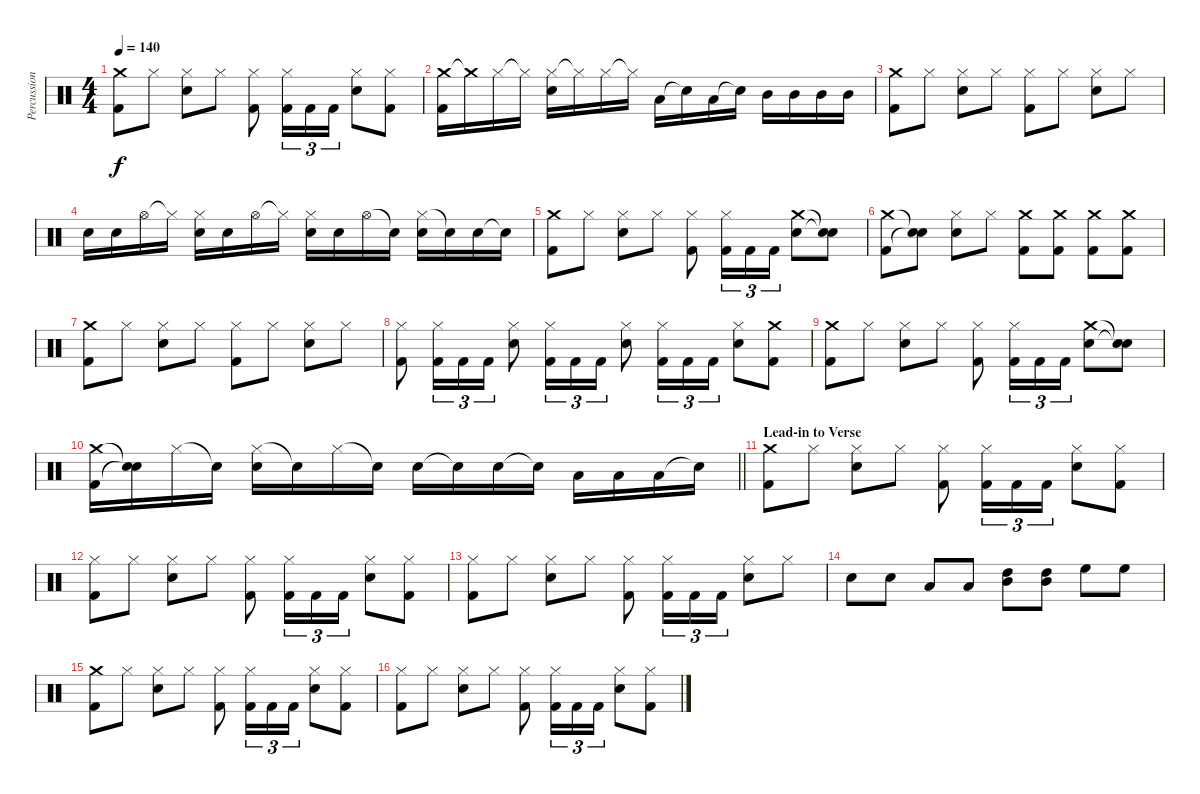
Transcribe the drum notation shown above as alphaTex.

\track ("Percussion" "Percussion") {instrument percussion}
\staff {score}
\articulation defaults
\ts (4 4)
\tempo 140
\clef neutral
\ks c
("Crash medium (hit)" "Kick (hit) 2").8{dy f} "Hi-Hat (closed)".8 ("Hi-Hat (closed)" "Snare (hit) 2").8 "Hi-Hat (closed)".8 ("Hi-Hat (closed)" "Kick (hit) 2").8 ("Hi-Hat (closed)" "Kick (hit) 2").16{tu (3 2)} "Kick (hit) 2".16{tu (3 2)} "Kick (hit) 2".16{tu (3 2)} ("Hi-Hat (closed)" "Snare (hit) 2").8 ("Hi-Hat (closed)" "Kick (hit) 2").8 |
("Crash medium (hit)" "Kick (hit) 2").16 "Crash medium (hit)"{t}.16 "Hi-Hat (closed)".16 "Hi-Hat (closed)"{t}.16 ("Hi-Hat (closed)" "Snare (hit) 2").16 "Hi-Hat (closed)"{t}.16 "Hi-Hat (closed)".16 "Hi-Hat (closed)"{t}.16 "Low Tom (hit)".16 "Snare (hit)"{t}.16 "Low Tom (hit)".16 "Snare (hit)"{t}.16 "Mid Tom (hit)".16 "Mid Tom (hit)".16 "Mid Tom (hit)".16 "Mid Tom (hit)".16 |
("Crash medium (hit)" "Kick (hit) 2").8 "Hi-Hat (closed)".8 ("Hi-Hat (closed)" "Snare (hit) 2").8 "Hi-Hat (closed)".8 ("Hi-Hat (closed)" "Kick (hit) 2").8 "Hi-Hat (closed)".8 ("Hi-Hat (closed)" "Snare (hit) 2").8 "Hi-Hat (closed)".8 |
"Snare (hit) 2".16 "Snare (hit) 2".16 "Hi-Hat (open)".16 "Hi-Hat (closed)"{t}.16 ("Hi-Hat (closed)" "Snare (hit) 2").16 "Snare (hit) 2".16 "Hi-Hat (open)".16 "Hi-Hat (closed)"{t}.16 ("Hi-Hat (closed)" "Snare (hit) 2").16 "Snare (hit) 2".16 "Hi-Hat (open)".16 "Snare (hit)"{t}.16 ("Hi-Hat (closed)" "Snare (hit) 2").16 "Snare (hit) 2"{t}.16 "Snare (hit) 2".16 "Snare (hit)"{t}.16 |
("Crash medium (hit)" "Kick (hit) 2").8 "Hi-Hat (closed)".8 ("Hi-Hat (closed)" "Snare (hit) 2").8 "Hi-Hat (closed)".8 ("Hi-Hat (closed)" "Kick (hit) 2").8 ("Hi-Hat (closed)" "Kick (hit) 2").16{tu (3 2)} "Kick (hit) 2".16{tu (3 2)} "Kick (hit) 2".16{tu (3 2)} ("Crash medium (hit)" "Snare (hit) 2").8 ("Snare (hit)"{t} "Snare (hit)"{t}).8 |
("Crash medium (hit)" "Kick (hit) 2").8 ("Snare (hit)"{t} "Snare (hit)"{t}).8 ("Hi-Hat (closed)" "Snare (hit) 2").8 "Hi-Hat (closed)".8 ("Crash medium (hit)" "Kick (hit) 2").8 ("Crash medium (hit)" "Kick (hit) 2").8 ("Crash medium (hit)" "Kick (hit) 2").8 ("Crash medium (hit)" "Kick (hit) 2").8 |
("Crash medium (hit)" "Kick (hit) 2").8 "Hi-Hat (closed)".8 ("Hi-Hat (closed)" "Snare (hit) 2").8 "Hi-Hat (closed)".8 ("Hi-Hat (closed)" "Kick (hit) 2").8 "Hi-Hat (closed)".8 ("Hi-Hat (closed)" "Snare (hit) 2").8 "Hi-Hat (closed)".8 |
("Hi-Hat (closed)" "Kick (hit) 2").8 ("Hi-Hat (closed)" "Kick (hit) 2").16{tu (3 2)} "Kick (hit) 2".16{tu (3 2)} "Kick (hit) 2".16{tu (3 2)} ("Hi-Hat (closed)" "Snare (hit) 2").8 ("Hi-Hat (closed)" "Kick (hit) 2").16{tu (3 2)} "Kick (hit) 2".16{tu (3 2)} "Kick (hit) 2".16{tu (3 2)} ("Hi-Hat (closed)" "Snare (hit) 2").8 ("Hi-Hat (closed)" "Kick (hit) 2").16{tu (3 2)} "Kick (hit) 2".16{tu (3 2)} "Kick (hit) 2".16{tu (3 2)} ("Hi-Hat (closed)" "Snare (hit) 2").8 ("Crash medium (hit)" "Kick (hit) 2").8 |
("Crash medium (hit)" "Kick (hit) 2").8 "Hi-Hat (closed)".8 ("Hi-Hat (closed)" "Snare (hit) 2").8 "Hi-Hat (closed)".8 ("Hi-Hat (closed)" "Kick (hit) 2").8 ("Hi-Hat (closed)" "Kick (hit) 2").16{tu (3 2)} "Kick (hit) 2".16{tu (3 2)} "Kick (hit) 2".16{tu (3 2)} ("Crash medium (hit)" "Snare (hit) 2").8 ("Snare (hit)"{t} "Snare (hit)"{t}).8 |
\barLineRight lightlight
("Crash medium (hit)" "Kick (hit) 2").16 ("Snare (hit)"{t} "Snare (hit)"{t}).16 "Hi-Hat (closed)".16 "Snare (hit)"{t}.16 ("Hi-Hat (closed)" "Snare (hit) 2").16 "Snare (hit)"{t}.16 "Hi-Hat (closed)".16 "Snare (hit)"{t}.16 "Snare (hit) 2".16 "Snare (hit)"{t}.16 "Snare (hit) 2".16 "Snare (hit)"{t}.16 "Low Tom (hit)".16 "Low Tom (hit)".16 "Low Tom (hit)".16 "Snare (hit)"{t}.16 |
\section ("" "Lead-in to Verse")
("Crash medium (hit)" "Kick (hit) 2").8 "Hi-Hat (closed)".8 ("Hi-Hat (closed)" "Snare (hit) 2").8 "Hi-Hat (closed)".8 ("Hi-Hat (closed)" "Kick (hit) 2").8 ("Hi-Hat (closed)" "Kick (hit) 2").16{tu (3 2)} "Kick (hit) 2".16{tu (3 2)} "Kick (hit) 2".16{tu (3 2)} ("Hi-Hat (closed)" "Snare (hit) 2").8 ("Hi-Hat (closed)" "Kick (hit) 2").8 |
("Hi-Hat (closed)" "Kick (hit) 2").8 "Hi-Hat (closed)".8 ("Hi-Hat (closed)" "Snare (hit) 2").8 "Hi-Hat (closed)".8 ("Hi-Hat (closed)" "Kick (hit) 2").8 ("Hi-Hat (closed)" "Kick (hit) 2").16{tu (3 2)} "Kick (hit) 2".16{tu (3 2)} "Kick (hit) 2".16{tu (3 2)} ("Hi-Hat (closed)" "Snare (hit) 2").8 ("Hi-Hat (closed)" "Kick (hit) 2").8 |
("Hi-Hat (closed)" "Kick (hit) 2").8 "Hi-Hat (closed)".8 ("Hi-Hat (closed)" "Snare (hit) 2").8 "Hi-Hat (closed)".8 ("Hi-Hat (closed)" "Kick (hit) 2").8 ("Hi-Hat (closed)" "Kick (hit) 2").16{tu (3 2)} "Kick (hit) 2".16{tu (3 2)} "Kick (hit) 2".16{tu (3 2)} ("Hi-Hat (closed)" "Snare (hit) 2").8 "Hi-Hat (closed)".8 |
"Snare (hit) 2".8 "Snare (hit) 2".8 "Low Tom (hit)".8 "Low Tom (hit)".8 ("Mid Tom (hit)" "High Tom (hit)").8 ("Mid Tom (hit)" "High Tom (hit)").8 "High Floor Tom (hit)".8 "High Floor Tom (hit)".8 |
("Crash medium (hit)" "Kick (hit) 2").8 "Hi-Hat (closed)".8 ("Hi-Hat (closed)" "Snare (hit) 2").8 "Hi-Hat (closed)".8 ("Hi-Hat (closed)" "Kick (hit) 2").8 ("Hi-Hat (closed)" "Kick (hit) 2").16{tu (3 2)} "Kick (hit) 2".16{tu (3 2)} "Kick (hit) 2".16{tu (3 2)} ("Hi-Hat (closed)" "Snare (hit) 2").8 ("Hi-Hat (closed)" "Kick (hit) 2").8 |
("Hi-Hat (closed)" "Kick (hit) 2").8 "Hi-Hat (closed)".8 ("Hi-Hat (closed)" "Snare (hit) 2").8 "Hi-Hat (closed)".8 ("Hi-Hat (closed)" "Kick (hit) 2").8 ("Hi-Hat (closed)" "Kick (hit) 2").16{tu (3 2)} "Kick (hit) 2".16{tu (3 2)} "Kick (hit) 2".16{tu (3 2)} ("Hi-Hat (closed)" "Snare (hit) 2").8 ("Hi-Hat (closed)" "Kick (hit) 2").8
